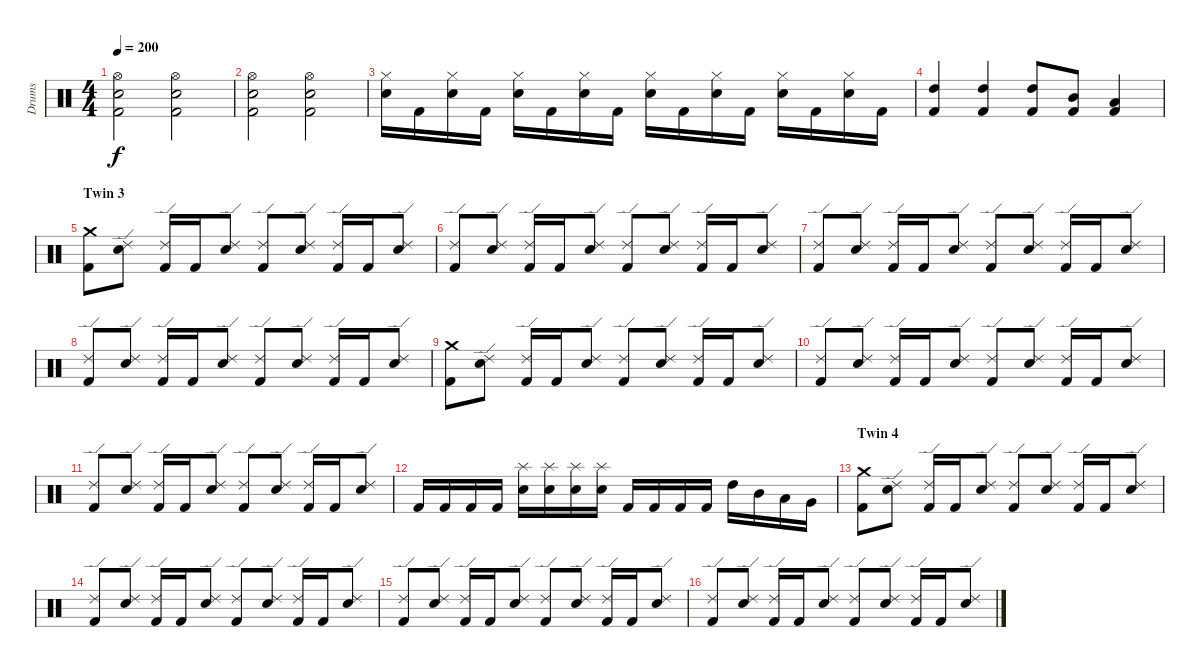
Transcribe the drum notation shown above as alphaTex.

\track ("Drums" "Drums") {instrument percussion}
\staff {score}
\articulation defaults
\ts (4 4)
\section ("" "")
\tempo 200
\clef neutral
\ks c
("Kick (hit) 2" "Snare (hit) 2" "Hi-Hat (open)").2{dy f} ("Kick (hit) 2" "Snare (hit) 2" "Hi-Hat (open)").2 |
("Kick (hit) 2" "Snare (hit) 2" "Hi-Hat (open)").2 ("Kick (hit) 2" "Snare (hit) 2" "Hi-Hat (open)").2 |
\section ("" "")
("Snare (hit) 2" "Hi-Hat (closed)").16 "Kick (hit) 2".16 ("Snare (hit) 2" "Hi-Hat (closed)").16 "Kick (hit) 2".16 ("Snare (hit) 2" "Hi-Hat (closed)").16 "Kick (hit) 2".16 ("Snare (hit) 2" "Hi-Hat (closed)").16 "Kick (hit) 2".16 ("Snare (hit) 2" "Hi-Hat (closed)").16 "Kick (hit) 2".16 ("Snare (hit) 2" "Hi-Hat (closed)").16 "Kick (hit) 2".16 ("Snare (hit) 2" "Hi-Hat (closed)").16 "Kick (hit) 2".16 ("Snare (hit) 2" "Hi-Hat (closed)").16 "Kick (hit) 2".16 |
("Kick (hit) 2" "High Tom (hit)").4 ("Kick (hit) 2" "High Tom (hit)").4 ("Kick (hit) 2" "High Tom (hit)").8 ("Kick (hit) 2" "Mid Tom (hit)").8 ("Kick (hit) 2" "Low Tom (hit)").4 |
\section ("" "Twin 3")
("Kick (hit) 2" "Crash medium (hit)").8 ("Snare (hit) 2" "Ride (edge) 2").8 ("Kick (hit) 2" "Ride (edge) 2").16 "Kick (hit) 2".16 ("Snare (hit) 2" "Ride (edge) 2").8 ("Kick (hit) 2" "Ride (edge) 2").8 ("Snare (hit) 2" "Ride (edge) 2").8 ("Kick (hit) 2" "Ride (edge) 2").16 "Kick (hit) 2".16 ("Snare (hit) 2" "Ride (edge) 2").8 |
("Kick (hit) 2" "Ride (edge) 2").8 ("Snare (hit) 2" "Ride (edge) 2").8 ("Kick (hit) 2" "Ride (edge) 2").16 "Kick (hit) 2".16 ("Snare (hit) 2" "Ride (edge) 2").8 ("Kick (hit) 2" "Ride (edge) 2").8 ("Snare (hit) 2" "Ride (edge) 2").8 ("Kick (hit) 2" "Ride (edge) 2").16 "Kick (hit) 2".16 ("Snare (hit) 2" "Ride (edge) 2").8 |
("Kick (hit) 2" "Ride (edge) 2").8 ("Snare (hit) 2" "Ride (edge) 2").8 ("Kick (hit) 2" "Ride (edge) 2").16 "Kick (hit) 2".16 ("Snare (hit) 2" "Ride (edge) 2").8 ("Kick (hit) 2" "Ride (edge) 2").8 ("Snare (hit) 2" "Ride (edge) 2").8 ("Kick (hit) 2" "Ride (edge) 2").16 "Kick (hit) 2".16 ("Snare (hit) 2" "Ride (edge) 2").8 |
("Kick (hit) 2" "Ride (edge) 2").8 ("Snare (hit) 2" "Ride (edge) 2").8 ("Kick (hit) 2" "Ride (edge) 2").16 "Kick (hit) 2".16 ("Snare (hit) 2" "Ride (edge) 2").8 ("Kick (hit) 2" "Ride (edge) 2").8 ("Snare (hit) 2" "Ride (edge) 2").8 ("Kick (hit) 2" "Ride (edge) 2").16 "Kick (hit) 2".16 ("Snare (hit) 2" "Ride (edge) 2").8 |
("Kick (hit) 2" "Crash medium (hit)").8 ("Snare (hit) 2" "Ride (edge) 2").8 ("Kick (hit) 2" "Ride (edge) 2").16 "Kick (hit) 2".16 ("Snare (hit) 2" "Ride (edge) 2").8 ("Kick (hit) 2" "Ride (edge) 2").8 ("Snare (hit) 2" "Ride (edge) 2").8 ("Kick (hit) 2" "Ride (edge) 2").16 "Kick (hit) 2".16 ("Snare (hit) 2" "Ride (edge) 2").8 |
("Kick (hit) 2" "Ride (edge) 2").8 ("Snare (hit) 2" "Ride (edge) 2").8 ("Kick (hit) 2" "Ride (edge) 2").16 "Kick (hit) 2".16 ("Snare (hit) 2" "Ride (edge) 2").8 ("Kick (hit) 2" "Ride (edge) 2").8 ("Snare (hit) 2" "Ride (edge) 2").8 ("Kick (hit) 2" "Ride (edge) 2").16 "Kick (hit) 2".16 ("Snare (hit) 2" "Ride (edge) 2").8 |
("Kick (hit) 2" "Ride (edge) 2").8 ("Snare (hit) 2" "Ride (edge) 2").8 ("Kick (hit) 2" "Ride (edge) 2").16 "Kick (hit) 2".16 ("Snare (hit) 2" "Ride (edge) 2").8 ("Kick (hit) 2" "Ride (edge) 2").8 ("Snare (hit) 2" "Ride (edge) 2").8 ("Kick (hit) 2" "Ride (edge) 2").16 "Kick (hit) 2".16 ("Snare (hit) 2" "Ride (edge) 2").8 |
"Kick (hit) 2".16 "Kick (hit) 2".16 "Kick (hit) 2".16 "Kick (hit) 2".16 ("Snare (hit) 2" "Splash (hit)").16 ("Snare (hit) 2" "Splash (hit)").16 ("Snare (hit) 2" "Splash (hit)").16 ("Snare (hit) 2" "Splash (hit)").16 "Kick (hit) 2".16 "Kick (hit) 2".16 "Kick (hit) 2".16 "Kick (hit) 2".16 "High Tom (hit)".16 "Mid Tom (hit)".16 "Low Tom (hit)".16 "Very Low Tom (hit)".16 |
\section ("" "Twin 4")
("Kick (hit) 2" "Crash medium (hit)").8 ("Snare (hit) 2" "Ride (edge) 2").8 ("Kick (hit) 2" "Ride (edge) 2").16 "Kick (hit) 2".16 ("Snare (hit) 2" "Ride (edge) 2").8 ("Kick (hit) 2" "Ride (edge) 2").8 ("Snare (hit) 2" "Ride (edge) 2").8 ("Kick (hit) 2" "Ride (edge) 2").16 "Kick (hit) 2".16 ("Snare (hit) 2" "Ride (edge) 2").8 |
("Kick (hit) 2" "Ride (edge) 2").8 ("Snare (hit) 2" "Ride (edge) 2").8 ("Kick (hit) 2" "Ride (edge) 2").16 "Kick (hit) 2".16 ("Snare (hit) 2" "Ride (edge) 2").8 ("Kick (hit) 2" "Ride (edge) 2").8 ("Snare (hit) 2" "Ride (edge) 2").8 ("Kick (hit) 2" "Ride (edge) 2").16 "Kick (hit) 2".16 ("Snare (hit) 2" "Ride (edge) 2").8 |
("Kick (hit) 2" "Ride (edge) 2").8 ("Snare (hit) 2" "Ride (edge) 2").8 ("Kick (hit) 2" "Ride (edge) 2").16 "Kick (hit) 2".16 ("Snare (hit) 2" "Ride (edge) 2").8 ("Kick (hit) 2" "Ride (edge) 2").8 ("Snare (hit) 2" "Ride (edge) 2").8 ("Kick (hit) 2" "Ride (edge) 2").16 "Kick (hit) 2".16 ("Snare (hit) 2" "Ride (edge) 2").8 |
("Kick (hit) 2" "Ride (edge) 2").8 ("Snare (hit) 2" "Ride (edge) 2").8 ("Kick (hit) 2" "Ride (edge) 2").16 "Kick (hit) 2".16 ("Snare (hit) 2" "Ride (edge) 2").8 ("Kick (hit) 2" "Ride (edge) 2").8 ("Snare (hit) 2" "Ride (edge) 2").8 ("Kick (hit) 2" "Ride (edge) 2").16 "Kick (hit) 2".16 ("Snare (hit) 2" "Ride (edge) 2").8
